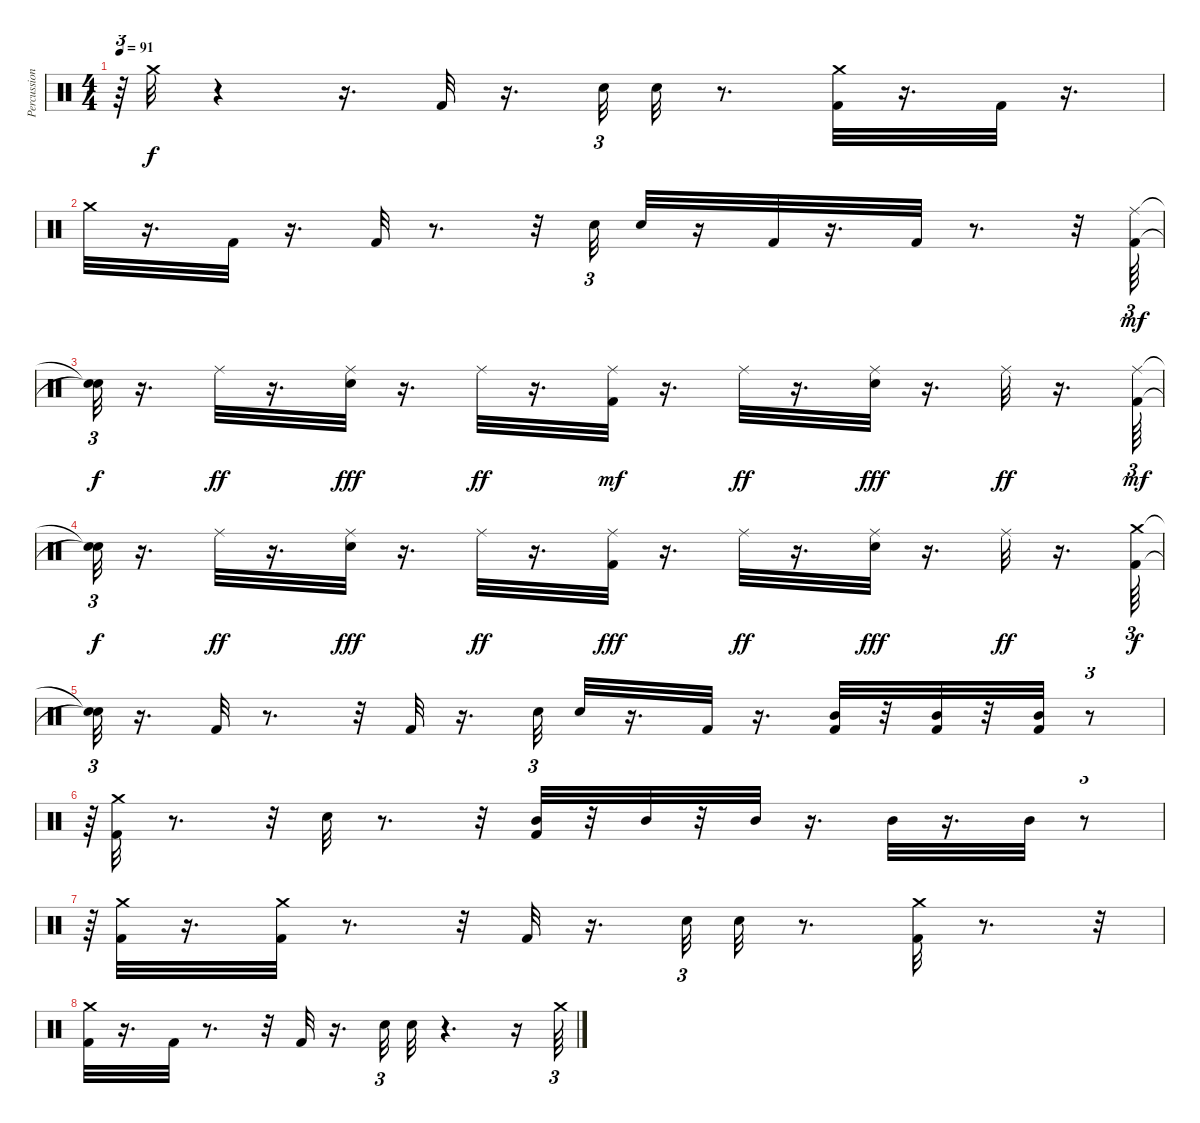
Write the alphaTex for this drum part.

\track ("Percussion" "Percussion") {instrument percussion}
\staff {score}
\articulation defaults
\ts (4 4)
\tempo 91
\clef neutral
\ks c
r.64{tu (3 2) dy f} "Crash medium (hit)".32 r.4 r.16{d} "Kick (hit) 2".32 r.16{d} "Snare (hit) 2".32{tu (3 2)} "Snare (hit) 2".32 r.8{d} ("Kick (hit) 2" "Crash medium (hit)").32 r.16{d} "Kick (hit) 2".32 r.16{d} |
"Crash medium (hit)".32 r.16{d} "Kick (hit) 2".32 r.16{d} "Kick (hit) 2".32 r.8{d} r.32 "Snare (hit) 2".32{tu (3 2)} "Snare (hit) 2".32 r.16 "Kick (hit) 2".32 r.16{d} "Kick (hit) 2".32 r.8{d} r.32 ("Ride (middle)" "Kick (hit) 2").64{tu (3 2) dy mf} |
("Snare (hit)"{t} "Snare (hit)"{t}).32{tu (3 2) dy f} r.16{d} "Ride (middle)".32{dy ff} r.16{d} ("Snare (hit) 2" "Ride (middle)").32{dy fff} r.16{d} "Ride (middle)".32{dy ff} r.16{d} ("Ride (middle)" "Kick (hit) 2").32{dy mf} r.16{d} "Ride (middle)".32{dy ff} r.16{d} ("Snare (hit) 2" "Ride (middle)").32{dy fff} r.16{d} "Ride (middle)".32{dy ff} r.16{d} ("Ride (middle)" "Kick (hit) 2").64{tu (3 2) dy mf} |
("Snare (hit)"{t} "Snare (hit)"{t}).32{tu (3 2) dy f} r.16{d} "Ride (middle)".32{dy ff} r.16{d} ("Snare (hit) 2" "Ride (middle)").32{dy fff} r.16{d} "Ride (middle)".32{dy ff} r.16{d} ("Kick (hit) 2" "Ride (middle)").32{dy fff} r.16{d} "Ride (middle)".32{dy ff} r.16{d} ("Snare (hit) 2" "Ride (middle)").32{dy fff} r.16{d} "Ride (middle)".32{dy ff} r.16{d} ("Kick (hit) 2" "Crash medium (hit)").64{tu (3 2) dy f} |
("Snare (hit)"{t} "Snare (hit)"{t}).32{tu (3 2)} r.16{d} "Kick (hit) 2".32 r.8{d} r.32 "Kick (hit) 2".32 r.16{d} "Snare (hit) 2".32{tu (3 2)} "Snare (hit) 2".32 r.16{d} "Kick (hit) 2".32 r.16{d} ("Mid Tom (hit)" "Kick (hit) 2").32 r.32 ("Mid Tom (hit)" "Kick (hit) 2").32 r.32 ("Mid Tom (hit)" "Kick (hit) 2").32 r.8{tu (3 2)} |
r.64{tu (3 2)} ("Crash medium (hit)" "Kick (hit) 2").32 r.8{d} r.32 "Snare (hit) 2".32 r.8{d} r.32 ("Kick (hit) 2" "Mid Tom (hit)").32 r.32 "Mid Tom (hit)".32 r.32 "Mid Tom (hit)".32 r.16{d} "Mid Tom (hit)".32 r.16{d} "Mid Tom (hit)".32 r.8{tu (3 2)} |
r.64{tu (3 2)} ("Crash medium (hit)" "Kick (hit) 2").32 r.16{d} ("Kick (hit) 2" "Crash medium (hit)").32 r.8{d} r.32 "Kick (hit) 2".32 r.16{d} "Snare (hit) 2".32{tu (3 2)} "Snare (hit) 2".32 r.8{d} ("Kick (hit) 2" "Crash medium (hit)").32 r.8{d} r.32 |
("Crash medium (hit)" "Kick (hit) 2").32 r.16{d} "Kick (hit) 2".32 r.8{d} r.32 "Kick (hit) 2".32 r.16{d} "Snare (hit) 2".32{tu (3 2)} "Snare (hit) 2".32 r.4{d} r.16 "Crash medium (hit)".64{tu (3 2)}
